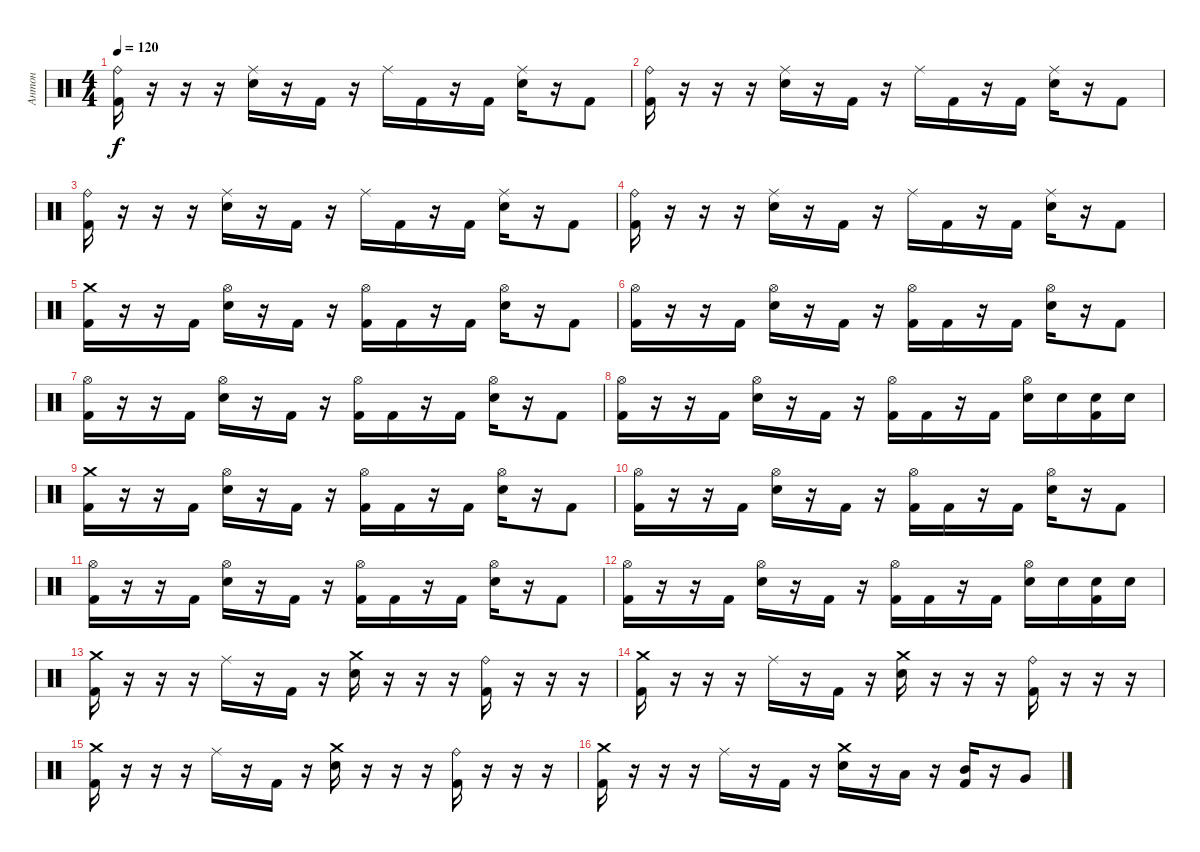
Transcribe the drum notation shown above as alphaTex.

\track ("Антон" "Антон") {instrument percussion}
\staff {score}
\articulation defaults
\ts (4 4)
\tempo 120
\clef neutral
\ks c
("Ride (bell)" "Kick (hit) 2").16{dy f} r.16 r.16 r.16 ("Ride (middle)" "Electric Snare (hit)").16 r.16 "Kick (hit) 2".16 r.16 "Ride (middle)".16 "Kick (hit) 2".16 r.16 "Kick (hit) 2".16 ("Ride (middle)" "Electric Snare (hit)").16 r.16 "Kick (hit) 2".8 |
("Ride (bell)" "Kick (hit) 2").16 r.16 r.16 r.16 ("Ride (middle)" "Electric Snare (hit)").16 r.16 "Kick (hit) 2".16 r.16 "Ride (middle)".16 "Kick (hit) 2".16 r.16 "Kick (hit) 2".16 ("Ride (middle)" "Electric Snare (hit)").16 r.16 "Kick (hit) 2".8 |
("Ride (bell)" "Kick (hit) 2").16 r.16 r.16 r.16 ("Ride (middle)" "Electric Snare (hit)").16 r.16 "Kick (hit) 2".16 r.16 "Ride (middle)".16 "Kick (hit) 2".16 r.16 "Kick (hit) 2".16 ("Ride (middle)" "Electric Snare (hit)").16 r.16 "Kick (hit) 2".8 |
("Ride (bell)" "Kick (hit) 2").16 r.16 r.16 r.16 ("Ride (middle)" "Electric Snare (hit)").16 r.16 "Kick (hit) 2".16 r.16 "Ride (middle)".16 "Kick (hit) 2".16 r.16 "Kick (hit) 2".16 ("Ride (middle)" "Electric Snare (hit)").16 r.16 "Kick (hit) 2".8 |
("Crash medium (hit)" "Kick (hit) 2").16 r.16 r.16 "Kick (hit) 2".16 ("Hi-Hat (open)" "Electric Snare (hit)").16 r.16 "Kick (hit) 2".16 r.16 ("Hi-Hat (open)" "Kick (hit) 2").16 "Kick (hit) 2".16 r.16 "Kick (hit) 2".16 ("Hi-Hat (open)" "Electric Snare (hit)").16 r.16 "Kick (hit) 2".8 |
("Hi-Hat (open)" "Kick (hit) 2").16 r.16 r.16 "Kick (hit) 2".16 ("Hi-Hat (open)" "Electric Snare (hit)").16 r.16 "Kick (hit) 2".16 r.16 ("Hi-Hat (open)" "Kick (hit) 2").16 "Kick (hit) 2".16 r.16 "Kick (hit) 2".16 ("Hi-Hat (open)" "Electric Snare (hit)").16 r.16 "Kick (hit) 2".8 |
("Hi-Hat (open)" "Kick (hit) 2").16 r.16 r.16 "Kick (hit) 2".16 ("Hi-Hat (open)" "Electric Snare (hit)").16 r.16 "Kick (hit) 2".16 r.16 ("Hi-Hat (open)" "Kick (hit) 2").16 "Kick (hit) 2".16 r.16 "Kick (hit) 2".16 ("Hi-Hat (open)" "Electric Snare (hit)").16 r.16 "Kick (hit) 2".8 |
("Hi-Hat (open)" "Kick (hit) 2").16 r.16 r.16 "Kick (hit) 2".16 ("Hi-Hat (open)" "Electric Snare (hit)").16 r.16 "Kick (hit) 2".16 r.16 ("Hi-Hat (open)" "Kick (hit) 2").16 "Kick (hit) 2".16 r.16 "Kick (hit) 2".16 ("Hi-Hat (open)" "Electric Snare (hit)").16 "Electric Snare (hit)".16 ("Electric Snare (hit)" "Kick (hit) 2").16 "Electric Snare (hit)".16 |
("Crash medium (hit)" "Kick (hit) 2").16 r.16 r.16 "Kick (hit) 2".16 ("Hi-Hat (open)" "Electric Snare (hit)").16 r.16 "Kick (hit) 2".16 r.16 ("Hi-Hat (open)" "Kick (hit) 2").16 "Kick (hit) 2".16 r.16 "Kick (hit) 2".16 ("Hi-Hat (open)" "Electric Snare (hit)").16 r.16 "Kick (hit) 2".8 |
("Hi-Hat (open)" "Kick (hit) 2").16 r.16 r.16 "Kick (hit) 2".16 ("Hi-Hat (open)" "Electric Snare (hit)").16 r.16 "Kick (hit) 2".16 r.16 ("Hi-Hat (open)" "Kick (hit) 2").16 "Kick (hit) 2".16 r.16 "Kick (hit) 2".16 ("Hi-Hat (open)" "Electric Snare (hit)").16 r.16 "Kick (hit) 2".8 |
("Hi-Hat (open)" "Kick (hit) 2").16 r.16 r.16 "Kick (hit) 2".16 ("Hi-Hat (open)" "Electric Snare (hit)").16 r.16 "Kick (hit) 2".16 r.16 ("Hi-Hat (open)" "Kick (hit) 2").16 "Kick (hit) 2".16 r.16 "Kick (hit) 2".16 ("Hi-Hat (open)" "Electric Snare (hit)").16 r.16 "Kick (hit) 2".8 |
("Hi-Hat (open)" "Kick (hit) 2").16 r.16 r.16 "Kick (hit) 2".16 ("Hi-Hat (open)" "Electric Snare (hit)").16 r.16 "Kick (hit) 2".16 r.16 ("Hi-Hat (open)" "Kick (hit) 2").16 "Kick (hit) 2".16 r.16 "Kick (hit) 2".16 ("Hi-Hat (open)" "Electric Snare (hit)").16 "Electric Snare (hit)".16 ("Electric Snare (hit)" "Kick (hit) 2").16 "Electric Snare (hit)".16 |
("Crash medium (hit)" "Kick (hit) 2").16 r.16 r.16 r.16 "Ride (middle)".16 r.16 "Kick (hit) 2".16 r.16 ("Crash medium (hit)" "Electric Snare (hit)").16 r.16 r.16 r.16 ("Ride (bell)" "Kick (hit) 2").16 r.16 r.16 r.16 |
("Crash medium (hit)" "Kick (hit) 2").16 r.16 r.16 r.16 "Ride (middle)".16 r.16 "Kick (hit) 2".16 r.16 ("Crash medium (hit)" "Electric Snare (hit)").16 r.16 r.16 r.16 ("Ride (bell)" "Kick (hit) 2").16 r.16 r.16 r.16 |
("Crash medium (hit)" "Kick (hit) 2").16 r.16 r.16 r.16 "Ride (middle)".16 r.16 "Kick (hit) 2".16 r.16 ("Crash medium (hit)" "Electric Snare (hit)").16 r.16 r.16 r.16 ("Ride (bell)" "Kick (hit) 2").16 r.16 r.16 r.16 |
("Crash medium (hit)" "Kick (hit) 2").16 r.16 r.16 r.16 "Ride (middle)".16 r.16 "Kick (hit) 2".16 r.16 ("Crash medium (hit)" "Electric Snare (hit)").16 r.16 "Low Tom (hit)".16 r.16 ("Mid Tom (hit)" "Kick (hit) 2").16 r.16 "Very Low Tom (hit)".8
